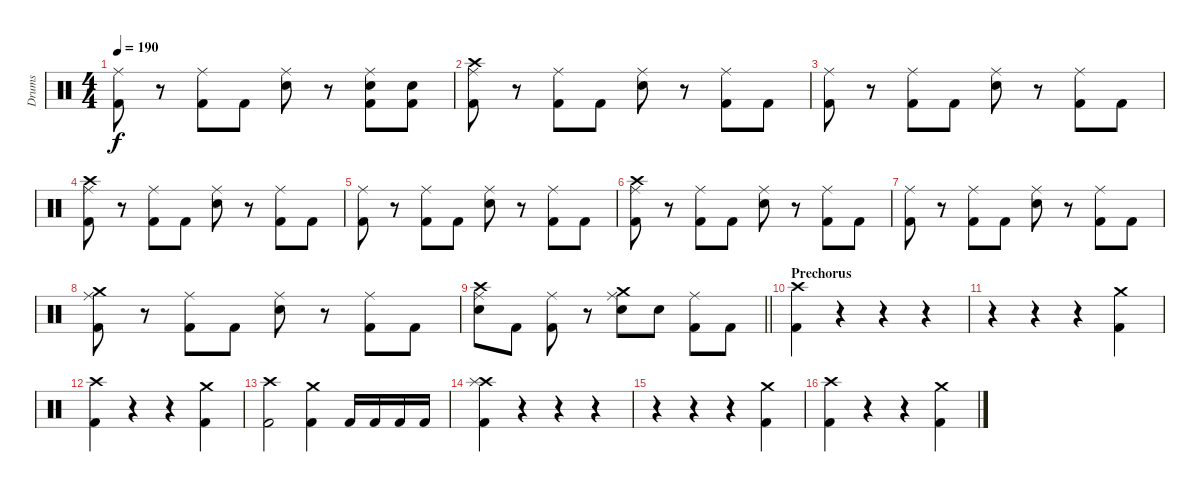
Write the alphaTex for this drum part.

\track ("Drums" "Drums") {instrument percussion}
\staff {score}
\articulation defaults
\ts (4 4)
\tempo 190
\clef neutral
\ks c
("Ride (middle)" "Kick (hit) 2").8{dy f} r.8 ("Ride (middle)" "Kick (hit) 2").8 "Kick (hit) 2".8 ("Ride (middle)" "Snare (hit) 2").8 r.8 ("Ride (middle)" "Snare (hit) 2" "Kick (hit) 2").8 ("Snare (hit) 2" "Kick (hit) 2").8 |
("Crash high (hit)" "Ride (middle)" "Kick (hit) 2").8 r.8 ("Ride (middle)" "Kick (hit) 2").8 "Kick (hit) 2".8 ("Ride (middle)" "Snare (hit) 2").8 r.8 ("Ride (middle)" "Kick (hit) 2").8 "Kick (hit) 2".8 |
("Ride (middle)" "Kick (hit) 2").8 r.8 ("Ride (middle)" "Kick (hit) 2").8 "Kick (hit) 2".8 ("Ride (middle)" "Snare (hit) 2").8 r.8 ("Ride (middle)" "Kick (hit) 2").8 "Kick (hit) 2".8 |
("Crash high (hit)" "Ride (middle)" "Kick (hit) 2").8 r.8 ("Ride (middle)" "Kick (hit) 2").8 "Kick (hit) 2".8 ("Ride (middle)" "Snare (hit) 2").8 r.8 ("Ride (middle)" "Kick (hit) 2").8 "Kick (hit) 2".8 |
("Ride (middle)" "Kick (hit) 2").8 r.8 ("Ride (middle)" "Kick (hit) 2").8 "Kick (hit) 2".8 ("Ride (middle)" "Snare (hit) 2").8 r.8 ("Ride (middle)" "Kick (hit) 2").8 "Kick (hit) 2".8 |
("Crash high (hit)" "Ride (middle)" "Kick (hit) 2").8 r.8 ("Ride (middle)" "Kick (hit) 2").8 "Kick (hit) 2".8 ("Ride (middle)" "Snare (hit) 2").8 r.8 ("Ride (middle)" "Kick (hit) 2").8 "Kick (hit) 2".8 |
("Ride (middle)" "Kick (hit) 2").8 r.8 ("Ride (middle)" "Kick (hit) 2").8 "Kick (hit) 2".8 ("Ride (middle)" "Snare (hit) 2").8 r.8 ("Ride (middle)" "Kick (hit) 2").8 "Kick (hit) 2".8 |
("Crash medium (hit)" "Ride (middle)" "Kick (hit) 2").8 r.8 ("Ride (middle)" "Kick (hit) 2").8 "Kick (hit) 2".8 ("Ride (middle)" "Snare (hit) 2").8 r.8 ("Ride (middle)" "Kick (hit) 2").8 "Kick (hit) 2".8 |
\barLineRight lightlight
("Crash high (hit)" "Ride (middle)" "Snare (hit) 2").8 "Kick (hit) 2".8 ("Ride (middle)" "Kick (hit) 2").8 r.8 ("Crash medium (hit)" "Ride (middle)" "Snare (hit) 2").8 "Snare (hit) 2".8 ("Ride (middle)" "Kick (hit) 2").8 "Kick (hit) 2".8 |
\section ("" "Prechorus")
("Crash high (hit)" "Kick (hit) 2").4 r.4 r.4 r.4 |
r.4 r.4 r.4 ("Crash medium (hit)" "Kick (hit) 2").4 |
("Crash high (hit)" "Kick (hit) 2").4 r.4 r.4 ("Crash medium (hit)" "Kick (hit) 2").4 |
("Crash high (hit)" "Kick (hit) 2").2 ("Crash medium (hit)" "Kick (hit) 2").4 "Kick (hit) 2".16 "Kick (hit) 2".16 "Kick (hit) 2".16 "Kick (hit) 2".16 |
("Crash high (hit)" "Splash (hit)" "Kick (hit) 2").4 r.4 r.4 r.4 |
r.4 r.4 r.4 ("Crash medium (hit)" "Kick (hit) 2").4 |
("Crash high (hit)" "Kick (hit) 2").4 r.4 r.4 ("Crash medium (hit)" "Kick (hit) 2").4
